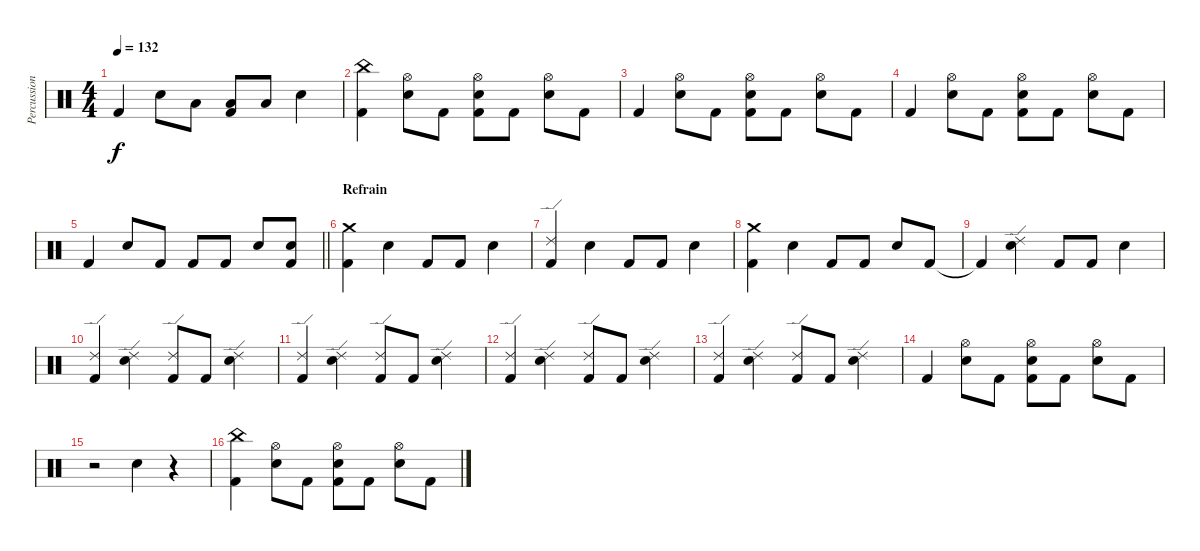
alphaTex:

\track ("Percussions" "Percussion") {instrument percussion}
\staff {score}
\articulation defaults
\ts (4 4)
\tempo 132
\clef neutral
\ks c "Kick (hit) 2".4{dy f} "Electric Snare (hit)".8 "Low Floor Tom (hit)".8
("Kick (hit) 2" "Low Floor Tom (hit)").8 "Low Floor Tom (hit)".8 "Electric Snare (hit)".4 |
("Kick (hit) 2" "China (hit)").4 ("Electric Snare (hit)" "Hi-Hat (open)").8 "Kick (hit) 2".8 ("Kick (hit) 2" "Electric Snare (hit)" "Hi-Hat (open)").8 "Kick (hit) 2".8 ("Electric Snare (hit)" "Hi-Hat (open)").8 "Kick (hit) 2".8 |
"Kick (hit) 2".4 ("Electric Snare (hit)" "Hi-Hat (open)").8 "Kick (hit) 2".8 ("Kick (hit) 2" "Electric Snare (hit)" "Hi-Hat (open)").8 "Kick (hit) 2".8 ("Electric Snare (hit)" "Hi-Hat (open)").8 "Kick (hit) 2".8 |
"Kick (hit) 2".4 ("Electric Snare (hit)" "Hi-Hat (open)").8 "Kick (hit) 2".8 ("Kick (hit) 2" "Electric Snare (hit)" "Hi-Hat (open)").8 "Kick (hit) 2".8 ("Electric Snare (hit)" "Hi-Hat (open)").8 "Kick (hit) 2".8 |
\barLineRight lightlight "Kick (hit) 2".4 "Electric Snare (hit)".8 "Kick (hit) 2".8 "Kick (hit) 2".8 "Kick (hit) 2".8 "Electric Snare (hit)".8
("Kick (hit) 2" "Electric Snare (hit)").8 |
\section ("" "Refrain")
("Kick (hit) 2" "Crash medium (hit)").4 "Electric Snare (hit)".4 "Kick (hit) 2".8 "Kick (hit) 2".8 "Electric Snare (hit)".4 |
("Kick (hit) 2" "Ride (edge) 2").4 "Electric Snare (hit)".4 "Kick (hit) 2".8 "Kick (hit) 2".8 "Electric Snare (hit)".4 |
("Kick (hit) 2" "Crash medium (hit)").4 "Electric Snare (hit)".4 "Kick (hit) 2".8 "Kick (hit) 2".8 "Electric Snare (hit)".8 "Kick (hit) 2".8 |
"Kick (hit) 2"{t}.4 ("Electric Snare (hit)" "Ride (edge) 2").4 "Kick (hit) 2".8 "Kick (hit) 2".8 "Electric Snare (hit)".4 |
("Kick (hit) 2" "Ride (edge) 2").4 ("Electric Snare (hit)" "Ride (edge) 2").4 ("Kick (hit) 2" "Ride (edge) 2").8 "Kick (hit) 2".8 ("Electric Snare (hit)" "Ride (edge) 2").4 |
("Kick (hit) 2" "Ride (edge) 2").4 ("Electric Snare (hit)" "Ride (edge) 2").4 ("Kick (hit) 2" "Ride (edge) 2").8 "Kick (hit) 2".8 ("Electric Snare (hit)" "Ride (edge) 2").4 |
("Kick (hit) 2" "Ride (edge) 2").4 ("Electric Snare (hit)" "Ride (edge) 2").4 ("Kick (hit) 2" "Ride (edge) 2").8 "Kick (hit) 2".8 ("Electric Snare (hit)" "Ride (edge) 2").4 |
("Kick (hit) 2" "Ride (edge) 2").4 ("Electric Snare (hit)" "Ride (edge) 2").4 ("Kick (hit) 2" "Ride (edge) 2").8 "Kick (hit) 2".8 ("Electric Snare (hit)" "Ride (edge) 2").4 |
"Kick (hit) 2".4 ("Electric Snare (hit)" "Hi-Hat (open)").8 "Kick (hit) 2".8 ("Kick (hit) 2" "Electric Snare (hit)" "Hi-Hat (open)").8 "Kick (hit) 2".8 ("Electric Snare (hit)" "Hi-Hat (open)").8 "Kick (hit) 2".8 |
r.2 "Electric Snare (hit)".4 r.4 |
("Kick (hit) 2" "China (hit)").4 ("Electric Snare (hit)" "Hi-Hat (open)").8 "Kick (hit) 2".8 ("Kick (hit) 2" "Electric Snare (hit)" "Hi-Hat (open)").8 "Kick (hit) 2".8 ("Electric Snare (hit)" "Hi-Hat (open)").8 "Kick (hit) 2".8
